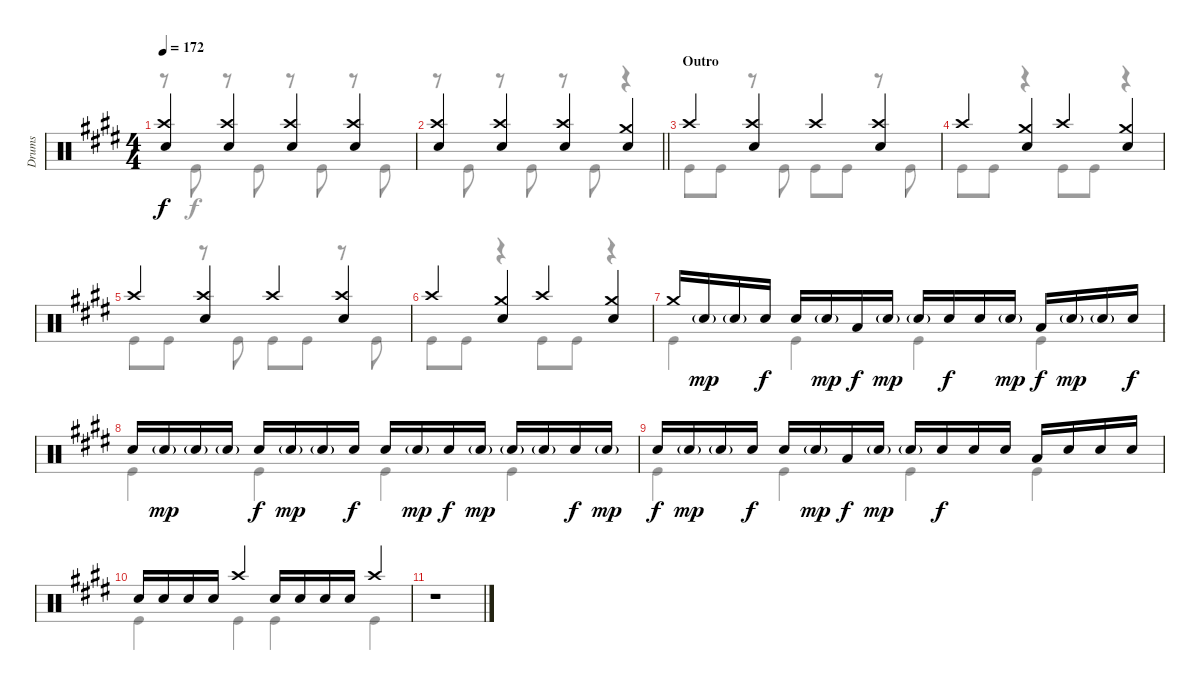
\track ("Drums" "Drums") {instrument percussion}
\staff {score}
\articulation defaults
\voice
\ts (4 4)
\tempo 172
\clef neutral
\ks e
("Crash high (hit)" "Electric Snare (hit)").4{dy f} ("Crash high (hit)" "Electric Snare (hit)").4 ("Crash high (hit)" "Electric Snare (hit)").4 ("Crash high (hit)" "Electric Snare (hit)").4 |
\barLineRight lightlight
("Crash high (hit)" "Electric Snare (hit)").4 ("Crash high (hit)" "Electric Snare (hit)").4 ("Crash high (hit)" "Electric Snare (hit)").4 ("Crash medium (hit)" "Electric Snare (hit)").4 |
\section ("" "Outro")
"Crash high (hit)".4 ("Crash high (hit)" "Electric Snare (hit)").4 "Crash high (hit)".4 ("Crash high (hit)" "Electric Snare (hit)").4 |
"Crash high (hit)".4 ("Crash medium (hit)" "Electric Snare (hit)").4 "Crash high (hit)".4 ("Crash medium (hit)" "Electric Snare (hit)").4 |
"Crash high (hit)".4 ("Crash high (hit)" "Electric Snare (hit)").4 "Crash high (hit)".4 ("Crash high (hit)" "Electric Snare (hit)").4 |
"Crash high (hit)".4 ("Crash medium (hit)" "Electric Snare (hit)").4 "Crash high (hit)".4 ("Crash medium (hit)" "Electric Snare (hit)").4 |
"Crash medium (hit)".16 "Electric Snare (hit)"{g}.16{dy mp} "Electric Snare (hit)"{g}.16 "Electric Snare (hit)".16{dy f} "Electric Snare (hit)".16 "Electric Snare (hit)"{g}.16{dy mp} "Low Tom (hit)".16{dy f} "Electric Snare (hit)"{g}.16{dy mp} "Electric Snare (hit)"{g}.16 "Electric Snare (hit)".16{dy f} "Electric Snare (hit)".16 "Electric Snare (hit)"{g}.16{dy mp} "Low Tom (hit)".16{dy f} "Electric Snare (hit)"{g}.16{dy mp} "Electric Snare (hit)"{g}.16 "Electric Snare (hit)".16{dy f} |
"Electric Snare (hit)".16 "Electric Snare (hit)"{g}.16{dy mp} "Electric Snare (hit)"{g}.16 "Electric Snare (hit)"{g}.16 "Electric Snare (hit)".16{dy f} "Electric Snare (hit)"{g}.16{dy mp} "Electric Snare (hit)"{g}.16 "Electric Snare (hit)".16{dy f} "Electric Snare (hit)".16 "Electric Snare (hit)"{g}.16{dy mp} "Electric Snare (hit)".16{dy f} "Electric Snare (hit)"{g}.16{dy mp} "Electric Snare (hit)"{g}.16 "Electric Snare (hit)"{g}.16 "Electric Snare (hit)".16{dy f} "Electric Snare (hit)"{g}.16{dy mp} |
"Electric Snare (hit)".16{dy f} "Electric Snare (hit)"{g}.16{dy mp} "Electric Snare (hit)"{g}.16 "Electric Snare (hit)".16{dy f} "Electric Snare (hit)".16 "Electric Snare (hit)"{g}.16{dy mp} "Low Tom (hit)".16{dy f} "Electric Snare (hit)"{g}.16{dy mp} "Electric Snare (hit)"{g}.16 "Electric Snare (hit)".16{dy f} "Electric Snare (hit)".16 "Electric Snare (hit)".16 "Low Tom (hit)".16 "Electric Snare (hit)".16 "Electric Snare (hit)".16 "Electric Snare (hit)".16 |
"Electric Snare (hit)".16 "Electric Snare (hit)".16 "Electric Snare (hit)".16 "Electric Snare (hit)".16 "Crash high (hit)".4 "Electric Snare (hit)".16 "Electric Snare (hit)".16 "Electric Snare (hit)".16 "Electric Snare (hit)".16 "Crash high (hit)".4 |
r.1
\voice
\clef neutral
\ottava regular
\simile none
\ks e
r.8{dy f} "Kick (hit)".8 r.8 "Kick (hit)".8 r.8 "Kick (hit)".8 r.8 "Kick (hit)".8 |
\barLineRight lightlight
r.8 "Kick (hit)".8 r.8 "Kick (hit)".8 r.8 "Kick (hit)".8 r.4 |
"Kick (hit)".8 "Kick (hit)".8 r.8 "Kick (hit)".8 "Kick (hit)".8 "Kick (hit)".8 r.8 "Kick (hit)".8 |
"Kick (hit)".8 "Kick (hit)".8 r.4 "Kick (hit)".8 "Kick (hit)".8 r.4 |
"Kick (hit)".8 "Kick (hit)".8 r.8 "Kick (hit)".8 "Kick (hit)".8 "Kick (hit)".8 r.8 "Kick (hit)".8 |
"Kick (hit)".8 "Kick (hit)".8 r.4 "Kick (hit)".8 "Kick (hit)".8 r.4 |
"Kick (hit)".4 "Kick (hit)".4 "Kick (hit)".4 "Kick (hit)".4 |
"Kick (hit)".4 "Kick (hit)".4 "Kick (hit)".4 "Kick (hit)".4 |
"Kick (hit)".4 "Kick (hit)".4 "Kick (hit)".4 "Kick (hit)".4 |
"Kick (hit)".4 "Kick (hit)".4 "Kick (hit)".4 "Kick (hit)".4 |
r.1
